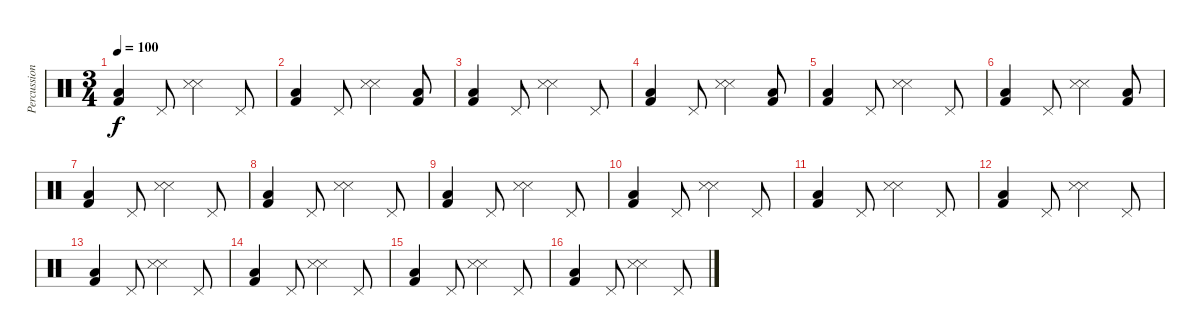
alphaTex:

\track ("Percussions" "Percussion") {instrument percussion}
\staff {score}
\articulation defaults
\ts (3 4)
\tempo 100
\clef neutral
\ks c
("Kick (hit) 2" "Low Floor Tom (hit)").4{dy f} "Pedal Hi-Hat (hit)".8 ("Snare (side stick) 3" "Snare (side stick) 3").4 "Pedal Hi-Hat (hit)".8 |
("Kick (hit) 2" "Low Floor Tom (hit)").4 "Pedal Hi-Hat (hit)".8 ("Snare (side stick) 3" "Snare (side stick) 3").4 ("Kick (hit) 2" "Low Floor Tom (hit)").8 |
("Kick (hit) 2" "Low Floor Tom (hit)").4 "Pedal Hi-Hat (hit)".8 ("Snare (side stick) 3" "Snare (side stick) 3").4 "Pedal Hi-Hat (hit)".8 |
("Kick (hit) 2" "Low Floor Tom (hit)").4 "Pedal Hi-Hat (hit)".8 ("Snare (side stick) 3" "Snare (side stick) 3").4 ("Kick (hit) 2" "Low Floor Tom (hit)").8 |
("Kick (hit) 2" "Low Floor Tom (hit)").4 "Pedal Hi-Hat (hit)".8 ("Snare (side stick) 3" "Snare (side stick) 3").4 "Pedal Hi-Hat (hit)".8 |
("Kick (hit) 2" "Low Floor Tom (hit)").4 "Pedal Hi-Hat (hit)".8 ("Snare (side stick) 3" "Snare (side stick) 3").4 ("Kick (hit) 2" "Low Floor Tom (hit)").8 |
("Kick (hit) 2" "Low Floor Tom (hit)").4 "Pedal Hi-Hat (hit)".8 ("Snare (side stick) 3" "Snare (side stick) 3").4 "Pedal Hi-Hat (hit)".8 |
("Kick (hit) 2" "Low Floor Tom (hit)").4 "Pedal Hi-Hat (hit)".8 ("Snare (side stick) 3" "Snare (side stick) 3").4 "Pedal Hi-Hat (hit)".8 |
("Kick (hit) 2" "Low Floor Tom (hit)").4 "Pedal Hi-Hat (hit)".8 ("Snare (side stick) 3" "Snare (side stick) 3").4 "Pedal Hi-Hat (hit)".8 |
("Kick (hit) 2" "Low Floor Tom (hit)").4 "Pedal Hi-Hat (hit)".8 ("Snare (side stick) 3" "Snare (side stick) 3").4 "Pedal Hi-Hat (hit)".8 |
("Kick (hit) 2" "Low Floor Tom (hit)").4 "Pedal Hi-Hat (hit)".8 ("Snare (side stick) 3" "Snare (side stick) 3").4 "Pedal Hi-Hat (hit)".8 |
("Kick (hit) 2" "Low Floor Tom (hit)").4 "Pedal Hi-Hat (hit)".8 ("Snare (side stick) 3" "Snare (side stick) 3").4 "Pedal Hi-Hat (hit)".8 |
("Kick (hit) 2" "Low Floor Tom (hit)").4 "Pedal Hi-Hat (hit)".8 ("Snare (side stick) 3" "Snare (side stick) 3").4 "Pedal Hi-Hat (hit)".8 |
("Kick (hit) 2" "Low Floor Tom (hit)").4 "Pedal Hi-Hat (hit)".8 ("Snare (side stick) 3" "Snare (side stick) 3").4 "Pedal Hi-Hat (hit)".8 |
("Kick (hit) 2" "Low Floor Tom (hit)").4 "Pedal Hi-Hat (hit)".8 ("Snare (side stick) 3" "Snare (side stick) 3").4 "Pedal Hi-Hat (hit)".8 |
("Kick (hit) 2" "Low Floor Tom (hit)").4 "Pedal Hi-Hat (hit)".8 ("Snare (side stick) 3" "Snare (side stick) 3").4 "Pedal Hi-Hat (hit)".8
